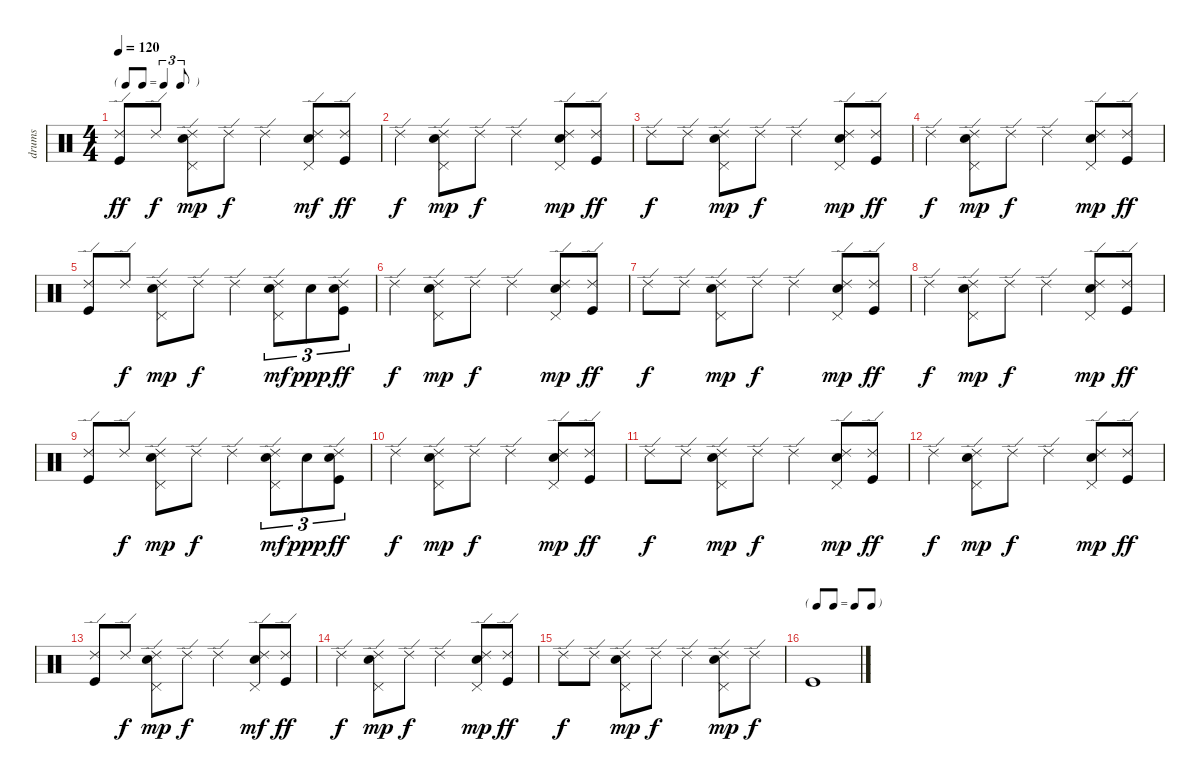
\track ("drums" "drums") {instrument percussion}
\staff {score}
\articulation defaults
\ts (4 4)
\tf triplet8th
\tempo 120
\clef neutral
\ks c
("Ride (edge) 2" "Kick (hit)").8{dy ff} "Ride (edge) 2".8{dy f} ("Ride (edge) 2" "Pedal Hi-Hat (hit)" "Snare (hit) 2").8{dy mp} "Ride (edge) 2".8{dy f} "Ride (edge) 2".4 ("Ride (edge) 2" "Pedal Hi-Hat (hit)" "Snare (hit) 2").8{dy mf} ("Ride (edge) 2" "Kick (hit)").8{dy ff} |
"Ride (edge) 2".4{dy f} ("Ride (edge) 2" "Pedal Hi-Hat (hit)" "Snare (hit) 2").8{dy mp} "Ride (edge) 2".8{dy f} "Ride (edge) 2".4 ("Ride (edge) 2" "Pedal Hi-Hat (hit)" "Snare (hit) 2").8{dy mp} ("Ride (edge) 2" "Kick (hit)").8{dy ff} |
"Ride (edge) 2".8{dy f} "Ride (edge) 2".8 ("Ride (edge) 2" "Pedal Hi-Hat (hit)" "Snare (hit) 2").8{dy mp} "Ride (edge) 2".8{dy f} "Ride (edge) 2".4 ("Ride (edge) 2" "Pedal Hi-Hat (hit)" "Snare (hit) 2").8{dy mp} ("Ride (edge) 2" "Kick (hit)").8{dy ff} |
"Ride (edge) 2".4{dy f} ("Ride (edge) 2" "Pedal Hi-Hat (hit)" "Snare (hit) 2").8{dy mp} "Ride (edge) 2".8{dy f} "Ride (edge) 2".4 ("Ride (edge) 2" "Pedal Hi-Hat (hit)" "Snare (hit) 2").8{dy mp} ("Ride (edge) 2" "Kick (hit)").8{dy ff} |
("Ride (edge) 2" "Kick (hit)").8 "Ride (edge) 2".8{dy f} ("Ride (edge) 2" "Pedal Hi-Hat (hit)" "Snare (hit) 2").8{dy mp} "Ride (edge) 2".8{dy f} "Ride (edge) 2".4 ("Ride (edge) 2" "Pedal Hi-Hat (hit)" "Snare (hit) 2").8{tu (3 2) dy mf} "Snare (hit) 2".8{tu (3 2) dy ppp} ("Ride (edge) 2" "Snare (hit) 2" "Kick (hit)").8{tu (3 2) dy ff} |
"Ride (edge) 2".4{dy f} ("Ride (edge) 2" "Pedal Hi-Hat (hit)" "Snare (hit) 2").8{dy mp} "Ride (edge) 2".8{dy f} "Ride (edge) 2".4 ("Ride (edge) 2" "Pedal Hi-Hat (hit)" "Snare (hit) 2").8{dy mp} ("Ride (edge) 2" "Kick (hit)").8{dy ff} |
"Ride (edge) 2".8{dy f} "Ride (edge) 2".8 ("Ride (edge) 2" "Pedal Hi-Hat (hit)" "Snare (hit) 2").8{dy mp} "Ride (edge) 2".8{dy f} "Ride (edge) 2".4 ("Ride (edge) 2" "Pedal Hi-Hat (hit)" "Snare (hit) 2").8{dy mp} ("Ride (edge) 2" "Kick (hit)").8{dy ff} |
"Ride (edge) 2".4{dy f} ("Ride (edge) 2" "Pedal Hi-Hat (hit)" "Snare (hit) 2").8{dy mp} "Ride (edge) 2".8{dy f} "Ride (edge) 2".4 ("Ride (edge) 2" "Pedal Hi-Hat (hit)" "Snare (hit) 2").8{dy mp} ("Ride (edge) 2" "Kick (hit)").8{dy ff} |
("Ride (edge) 2" "Kick (hit)").8 "Ride (edge) 2".8{dy f} ("Ride (edge) 2" "Pedal Hi-Hat (hit)" "Snare (hit) 2").8{dy mp} "Ride (edge) 2".8{dy f} "Ride (edge) 2".4 ("Ride (edge) 2" "Pedal Hi-Hat (hit)" "Snare (hit) 2").8{tu (3 2) dy mf} "Snare (hit) 2".8{tu (3 2) dy ppp} ("Ride (edge) 2" "Snare (hit) 2" "Kick (hit)").8{tu (3 2) dy ff} |
"Ride (edge) 2".4{dy f} ("Ride (edge) 2" "Pedal Hi-Hat (hit)" "Snare (hit) 2").8{dy mp} "Ride (edge) 2".8{dy f} "Ride (edge) 2".4 ("Ride (edge) 2" "Pedal Hi-Hat (hit)" "Snare (hit) 2").8{dy mp} ("Ride (edge) 2" "Kick (hit)").8{dy ff} |
"Ride (edge) 2".8{dy f} "Ride (edge) 2".8 ("Ride (edge) 2" "Pedal Hi-Hat (hit)" "Snare (hit) 2").8{dy mp} "Ride (edge) 2".8{dy f} "Ride (edge) 2".4 ("Ride (edge) 2" "Pedal Hi-Hat (hit)" "Snare (hit) 2").8{dy mp} ("Ride (edge) 2" "Kick (hit)").8{dy ff} |
"Ride (edge) 2".4{dy f} ("Ride (edge) 2" "Pedal Hi-Hat (hit)" "Snare (hit) 2").8{dy mp} "Ride (edge) 2".8{dy f} "Ride (edge) 2".4 ("Ride (edge) 2" "Pedal Hi-Hat (hit)" "Snare (hit) 2").8{dy mp} ("Ride (edge) 2" "Kick (hit)").8{dy ff} |
("Ride (edge) 2" "Kick (hit)").8 "Ride (edge) 2".8{dy f} ("Ride (edge) 2" "Pedal Hi-Hat (hit)" "Snare (hit) 2").8{dy mp} "Ride (edge) 2".8{dy f} "Ride (edge) 2".4 ("Ride (edge) 2" "Pedal Hi-Hat (hit)" "Snare (hit) 2").8{dy mf} ("Ride (edge) 2" "Kick (hit)").8{dy ff} |
"Ride (edge) 2".4{dy f} ("Ride (edge) 2" "Pedal Hi-Hat (hit)" "Snare (hit) 2").8{dy mp} "Ride (edge) 2".8{dy f} "Ride (edge) 2".4 ("Ride (edge) 2" "Pedal Hi-Hat (hit)" "Snare (hit) 2").8{dy mp} ("Ride (edge) 2" "Kick (hit)").8{dy ff} |
"Ride (edge) 2".8{dy f} "Ride (edge) 2".8 ("Ride (edge) 2" "Pedal Hi-Hat (hit)" "Snare (hit) 2").8{dy mp} "Ride (edge) 2".8{dy f} "Ride (edge) 2".4 ("Ride (edge) 2" "Pedal Hi-Hat (hit)" "Snare (hit) 2").8{dy mp} "Ride (edge) 2".8{dy f} |
\tf none "Kick (hit)".1
